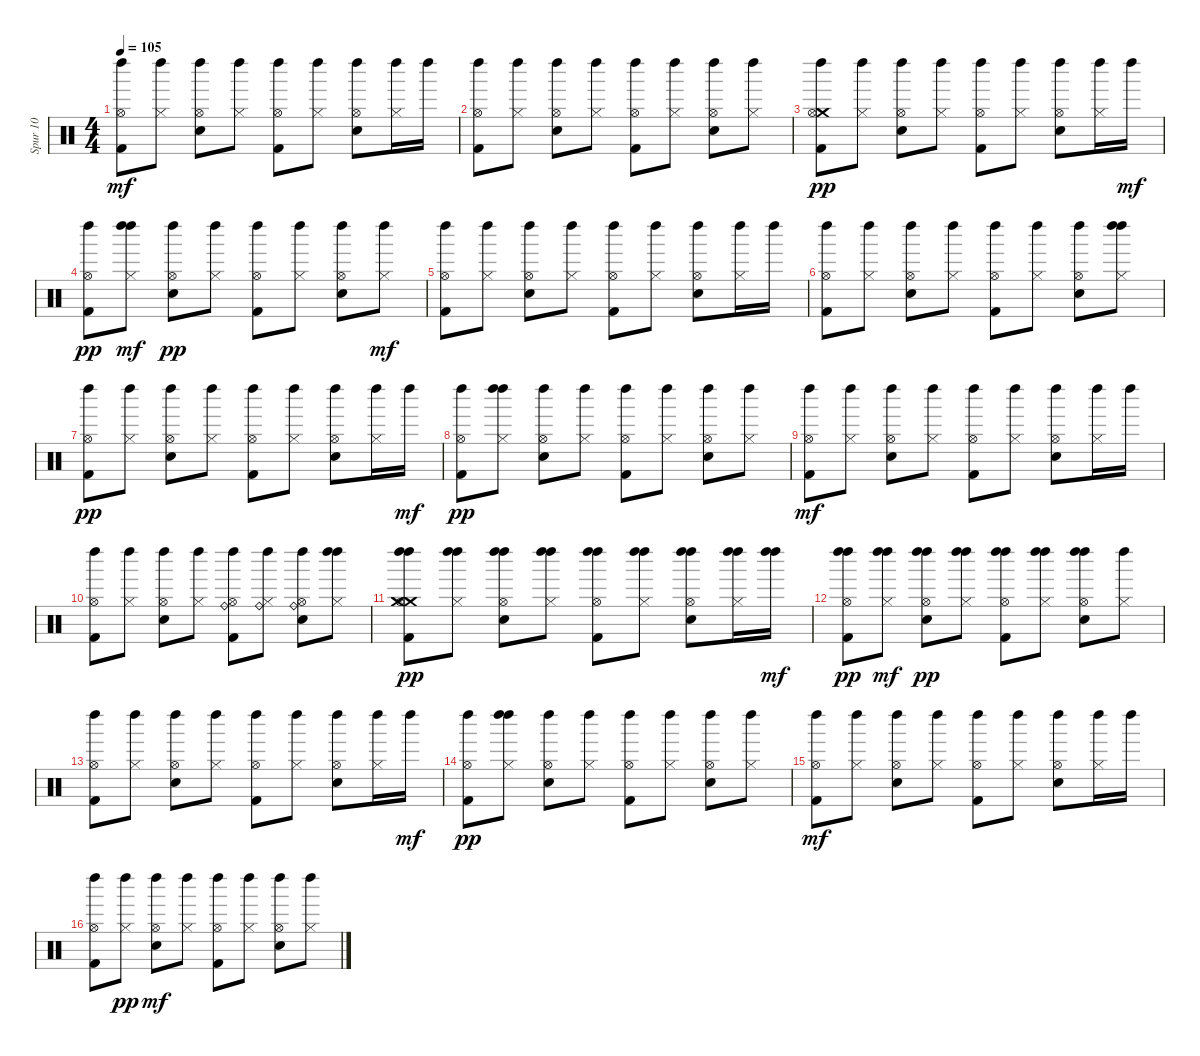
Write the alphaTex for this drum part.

\track ("Spur 10" "Spur 10") {instrument percussion}
\staff {score}
\articulation defaults
\ts (4 4)
\tempo 105
\clef neutral
\ks c
("Hi-Hat (open)" "Left Maraca (hit)" "Kick (hit) 2").8{dy mf} ("Hi-Hat (closed)" "Left Maraca (hit)").8 ("Hi-Hat (open)" "Left Maraca (hit)" "Snare (hit) 2").8 ("Hi-Hat (closed)" "Left Maraca (hit)").8 ("Hi-Hat (open)" "Left Maraca (hit)" "Kick (hit) 2").8 ("Hi-Hat (closed)" "Left Maraca (hit)").8 ("Hi-Hat (open)" "Left Maraca (hit)" "Snare (hit) 2").8 ("Hi-Hat (closed)" "Left Maraca (hit)").16 "Left Maraca (hit)".16 |
("Hi-Hat (open)" "Left Maraca (hit)" "Kick (hit) 2").8 ("Hi-Hat (closed)" "Left Maraca (hit)").8 ("Hi-Hat (open)" "Left Maraca (hit)" "Snare (hit) 2").8 ("Hi-Hat (closed)" "Left Maraca (hit)").8 ("Hi-Hat (open)" "Left Maraca (hit)" "Kick (hit) 2").8 ("Hi-Hat (closed)" "Left Maraca (hit)").8 ("Hi-Hat (open)" "Left Maraca (hit)" "Snare (hit) 2").8 ("Hi-Hat (closed)" "Left Maraca (hit)").8 |
("Left Maraca (hit)" "Crash medium (hit)" "Hi-Hat (open)" "Kick (hit) 2").8{dy pp} ("Left Maraca (hit)" "Hi-Hat (closed)").8 ("Left Maraca (hit)" "Hi-Hat (open)" "Snare (hit) 2").8 ("Left Maraca (hit)" "Hi-Hat (closed)").8 ("Left Maraca (hit)" "Hi-Hat (open)" "Kick (hit) 2").8 ("Left Maraca (hit)" "Hi-Hat (closed)").8 ("Left Maraca (hit)" "Hi-Hat (open)" "Snare (hit) 2").8 ("Left Maraca (hit)" "Hi-Hat (closed)").16 "Left Maraca (hit)".16{dy mf} |
("Left Maraca (hit)" "Hi-Hat (open)" "Kick (hit) 2").8{dy pp} ("Left Maraca (hit)" "Hi-Hat (closed)" "Left Maraca (hit)").8{dy mf} ("Left Maraca (hit)" "Hi-Hat (open)" "Snare (hit) 2").8{dy pp} ("Left Maraca (hit)" "Hi-Hat (closed)").8 ("Left Maraca (hit)" "Hi-Hat (open)" "Kick (hit) 2").8 ("Left Maraca (hit)" "Hi-Hat (closed)").8 ("Left Maraca (hit)" "Hi-Hat (open)" "Snare (hit) 2").8 ("Hi-Hat (closed)" "Left Maraca (hit)").8{dy mf} |
("Hi-Hat (open)" "Kick (hit) 2" "Left Maraca (hit)").8 ("Hi-Hat (closed)" "Left Maraca (hit)").8 ("Hi-Hat (open)" "Snare (hit) 2" "Left Maraca (hit)").8 ("Hi-Hat (closed)" "Left Maraca (hit)").8 ("Hi-Hat (open)" "Kick (hit) 2" "Left Maraca (hit)").8 ("Hi-Hat (closed)" "Left Maraca (hit)").8 ("Hi-Hat (open)" "Snare (hit) 2" "Left Maraca (hit)").8 ("Hi-Hat (closed)" "Left Maraca (hit)").16 "Left Maraca (hit)".16 |
("Hi-Hat (open)" "Kick (hit) 2" "Left Maraca (hit)").8 ("Hi-Hat (closed)" "Left Maraca (hit)").8 ("Hi-Hat (open)" "Snare (hit) 2" "Left Maraca (hit)").8 ("Hi-Hat (closed)" "Left Maraca (hit)").8 ("Hi-Hat (open)" "Kick (hit) 2" "Left Maraca (hit)").8 ("Hi-Hat (closed)" "Left Maraca (hit)").8 ("Hi-Hat (open)" "Snare (hit) 2" "Left Maraca (hit)").8 ("Hi-Hat (closed)" "Left Maraca (hit)" "Left Maraca (hit)").8 |
("Left Maraca (hit)" "Kick (hit) 2" "Hi-Hat (open)").8{dy pp} ("Left Maraca (hit)" "Hi-Hat (closed)").8 ("Left Maraca (hit)" "Snare (hit) 2" "Hi-Hat (open)").8 ("Left Maraca (hit)" "Hi-Hat (closed)").8 ("Left Maraca (hit)" "Kick (hit) 2" "Hi-Hat (open)").8 ("Left Maraca (hit)" "Hi-Hat (closed)").8 ("Left Maraca (hit)" "Snare (hit) 2" "Hi-Hat (open)").8 ("Left Maraca (hit)" "Hi-Hat (closed)").16 "Left Maraca (hit)".16{dy mf} |
("Left Maraca (hit)" "Kick (hit) 2" "Hi-Hat (open)").8{dy pp} ("Left Maraca (hit)" "Left Maraca (hit)" "Hi-Hat (closed)").8 ("Left Maraca (hit)" "Snare (hit) 2" "Hi-Hat (open)").8 ("Left Maraca (hit)" "Hi-Hat (closed)").8 ("Left Maraca (hit)" "Kick (hit) 2" "Hi-Hat (open)").8 ("Left Maraca (hit)" "Hi-Hat (closed)").8 ("Left Maraca (hit)" "Snare (hit) 2" "Hi-Hat (open)").8 ("Left Maraca (hit)" "Hi-Hat (closed)").8 |
("Hi-Hat (open)" "Left Maraca (hit)" "Kick (hit) 2").8{dy mf} ("Hi-Hat (closed)" "Left Maraca (hit)").8 ("Hi-Hat (open)" "Left Maraca (hit)" "Snare (hit) 2").8 ("Hi-Hat (closed)" "Left Maraca (hit)").8 ("Hi-Hat (open)" "Left Maraca (hit)" "Kick (hit) 2").8 ("Hi-Hat (closed)" "Left Maraca (hit)").8 ("Hi-Hat (open)" "Left Maraca (hit)" "Snare (hit) 2").8 ("Hi-Hat (closed)" "Left Maraca (hit)").16 "Left Maraca (hit)".16 |
("Hi-Hat (open)" "Left Maraca (hit)" "Kick (hit) 2").8 ("Hi-Hat (closed)" "Left Maraca (hit)").8 ("Hi-Hat (open)" "Left Maraca (hit)" "Snare (hit) 2").8 ("Hi-Hat (closed)" "Left Maraca (hit)").8 ("Hi-Hat (open)" "Left Maraca (hit)" "Kick (hit) 2" "Ride (bell)").8 ("Hi-Hat (closed)" "Left Maraca (hit)" "Ride (bell)").8 ("Hi-Hat (open)" "Left Maraca (hit)" "Snare (hit) 2" "Ride (bell)").8 ("Hi-Hat (closed)" "Left Maraca (hit)" "Left Maraca (hit)").8 |
("Left Maraca (hit)" "Left Maraca (hit)" "Crash medium (hit)" "Hi-Hat (open)" "Crash medium (hit)" "Kick (hit) 2").8{dy pp} ("Left Maraca (hit)" "Left Maraca (hit)" "Hi-Hat (closed)").8 ("Left Maraca (hit)" "Left Maraca (hit)" "Hi-Hat (open)" "Snare (hit) 2").8 ("Left Maraca (hit)" "Left Maraca (hit)" "Hi-Hat (closed)").8 ("Left Maraca (hit)" "Left Maraca (hit)" "Hi-Hat (open)" "Kick (hit) 2").8 ("Left Maraca (hit)" "Left Maraca (hit)" "Hi-Hat (closed)").8 ("Left Maraca (hit)" "Left Maraca (hit)" "Hi-Hat (open)" "Snare (hit) 2").8 ("Left Maraca (hit)" "Left Maraca (hit)" "Hi-Hat (closed)").16 ("Left Maraca (hit)" "Left Maraca (hit)").16{dy mf} |
("Left Maraca (hit)" "Left Maraca (hit)" "Hi-Hat (open)" "Kick (hit) 2").8{dy pp} ("Left Maraca (hit)" "Hi-Hat (closed)" "Left Maraca (hit)").8{dy mf} ("Left Maraca (hit)" "Left Maraca (hit)" "Hi-Hat (open)" "Snare (hit) 2").8{dy pp} ("Left Maraca (hit)" "Left Maraca (hit)" "Hi-Hat (closed)").8 ("Left Maraca (hit)" "Left Maraca (hit)" "Hi-Hat (open)" "Kick (hit) 2").8 ("Left Maraca (hit)" "Left Maraca (hit)" "Hi-Hat (closed)").8 ("Left Maraca (hit)" "Left Maraca (hit)" "Hi-Hat (open)" "Snare (hit) 2").8 ("Left Maraca (hit)" "Hi-Hat (closed)").8 |
("Left Maraca (hit)" "Kick (hit) 2" "Hi-Hat (open)").8 ("Left Maraca (hit)" "Hi-Hat (closed)").8 ("Left Maraca (hit)" "Snare (hit) 2" "Hi-Hat (open)").8 ("Left Maraca (hit)" "Hi-Hat (closed)").8 ("Left Maraca (hit)" "Kick (hit) 2" "Hi-Hat (open)").8 ("Left Maraca (hit)" "Hi-Hat (closed)").8 ("Left Maraca (hit)" "Snare (hit) 2" "Hi-Hat (open)").8 ("Left Maraca (hit)" "Hi-Hat (closed)").16 "Left Maraca (hit)".16{dy mf} |
("Left Maraca (hit)" "Kick (hit) 2" "Hi-Hat (open)").8{dy pp} ("Left Maraca (hit)" "Left Maraca (hit)" "Hi-Hat (closed)").8 ("Left Maraca (hit)" "Snare (hit) 2" "Hi-Hat (open)").8 ("Left Maraca (hit)" "Hi-Hat (closed)").8 ("Left Maraca (hit)" "Kick (hit) 2" "Hi-Hat (open)").8 ("Left Maraca (hit)" "Hi-Hat (closed)").8 ("Left Maraca (hit)" "Snare (hit) 2" "Hi-Hat (open)").8 ("Left Maraca (hit)" "Hi-Hat (closed)").8 |
("Kick (hit) 2" "Hi-Hat (open)" "Left Maraca (hit)").8{dy mf} ("Hi-Hat (closed)" "Left Maraca (hit)").8 ("Snare (hit) 2" "Hi-Hat (open)" "Left Maraca (hit)").8 ("Hi-Hat (closed)" "Left Maraca (hit)").8 ("Kick (hit) 2" "Hi-Hat (open)" "Left Maraca (hit)").8 ("Hi-Hat (closed)" "Left Maraca (hit)").8 ("Snare (hit) 2" "Hi-Hat (open)" "Left Maraca (hit)").8 ("Hi-Hat (closed)" "Left Maraca (hit)").16 "Left Maraca (hit)".16 |
("Kick (hit) 2" "Hi-Hat (open)" "Left Maraca (hit)").8 ("Left Maraca (hit)" "Hi-Hat (closed)").8{dy pp} ("Snare (hit) 2" "Hi-Hat (open)" "Left Maraca (hit)").8{dy mf} ("Hi-Hat (closed)" "Left Maraca (hit)").8 ("Kick (hit) 2" "Hi-Hat (open)" "Left Maraca (hit)").8 ("Hi-Hat (closed)" "Left Maraca (hit)").8 ("Snare (hit) 2" "Hi-Hat (open)" "Left Maraca (hit)").8 ("Hi-Hat (closed)" "Left Maraca (hit)").8
